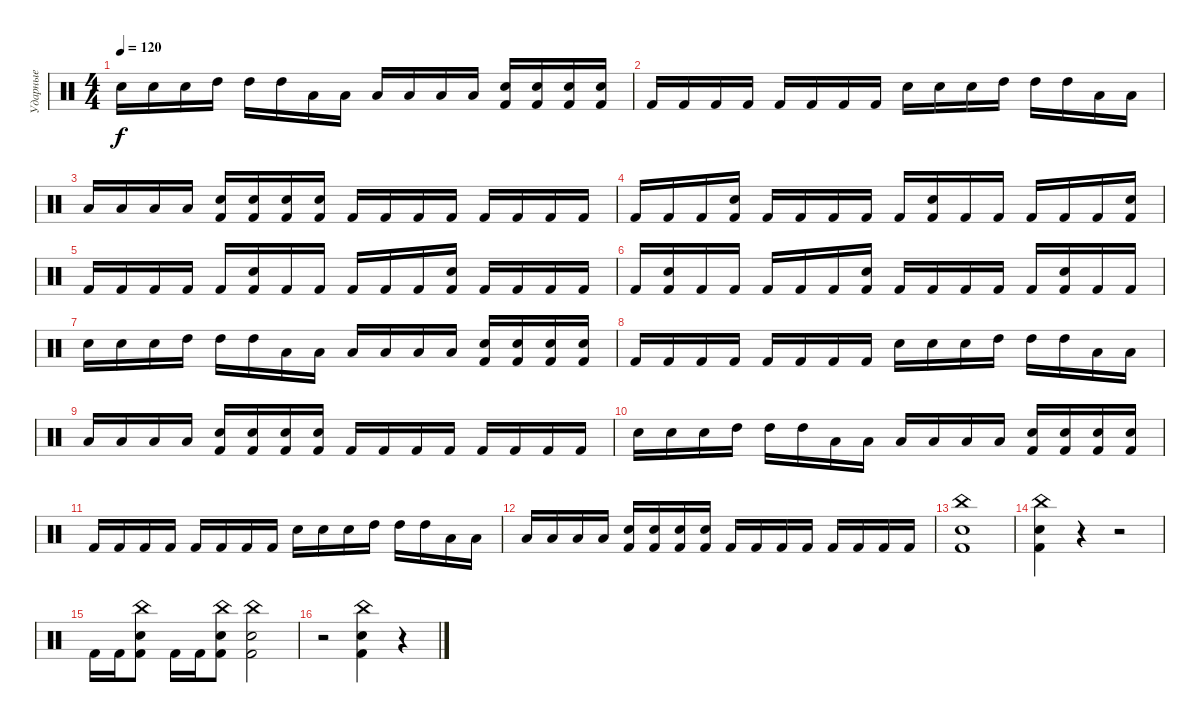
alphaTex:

\track ("Ударные" "Ударные") {instrument percussion}
\staff {score}
\articulation defaults
\ts (4 4)
\tempo 120
\clef neutral
\ks c "Snare (hit) 2".16{dy f} "Snare (hit) 2".16 "Snare (hit) 2".16 "High Tom (hit)".16 "High Tom (hit)".16 "High Tom (hit)".16 "Low Tom (hit)".16 "Low Tom (hit)".16 "Low Tom (hit)".16 "Low Floor Tom (hit)".16 "Low Floor Tom (hit)".16 "Low Floor Tom (hit)".16
("Snare (hit) 2" "Kick (hit) 2").16 ("Snare (hit) 2" "Kick (hit) 2").16 ("Snare (hit) 2" "Kick (hit) 2").16 ("Snare (hit) 2" "Kick (hit) 2").16 |
"Kick (hit) 2".16 "Kick (hit) 2".16 "Kick (hit) 2".16 "Kick (hit) 2".16 "Kick (hit) 2".16 "Kick (hit) 2".16 "Kick (hit) 2".16 "Kick (hit) 2".16 "Snare (hit) 2".16 "Snare (hit) 2".16 "Snare (hit) 2".16 "High Tom (hit)".16 "High Tom (hit)".16 "High Tom (hit)".16 "Low Tom (hit)".16 "Low Tom (hit)".16 |
"Low Tom (hit)".16 "Low Floor Tom (hit)".16 "Low Floor Tom (hit)".16 "Low Floor Tom (hit)".16 ("Snare (hit) 2" "Kick (hit) 2").16 ("Snare (hit) 2" "Kick (hit) 2").16 ("Snare (hit) 2" "Kick (hit) 2").16 ("Snare (hit) 2" "Kick (hit) 2").16 "Kick (hit) 2".16 "Kick (hit) 2".16 "Kick (hit) 2".16 "Kick (hit) 2".16 "Kick (hit) 2".16 "Kick (hit) 2".16 "Kick (hit) 2".16 "Kick (hit) 2".16 |
"Kick (hit) 2".16 "Kick (hit) 2".16 "Kick (hit) 2".16 ("Snare (hit) 2" "Kick (hit) 2").16 "Kick (hit) 2".16 "Kick (hit) 2".16 "Kick (hit) 2".16 "Kick (hit) 2".16 "Kick (hit) 2".16 ("Snare (hit) 2" "Kick (hit) 2").16 "Kick (hit) 2".16 "Kick (hit) 2".16 "Kick (hit) 2".16 "Kick (hit) 2".16 "Kick (hit) 2".16 ("Snare (hit) 2" "Kick (hit) 2").16 |
"Kick (hit) 2".16 "Kick (hit) 2".16 "Kick (hit) 2".16 "Kick (hit) 2".16 "Kick (hit) 2".16 ("Snare (hit) 2" "Kick (hit) 2").16 "Kick (hit) 2".16 "Kick (hit) 2".16 "Kick (hit) 2".16 "Kick (hit) 2".16 "Kick (hit) 2".16 ("Snare (hit) 2" "Kick (hit) 2").16 "Kick (hit) 2".16 "Kick (hit) 2".16 "Kick (hit) 2".16 "Kick (hit) 2".16 |
"Kick (hit) 2".16 ("Snare (hit) 2" "Kick (hit) 2").16 "Kick (hit) 2".16 "Kick (hit) 2".16 "Kick (hit) 2".16 "Kick (hit) 2".16 "Kick (hit) 2".16 ("Snare (hit) 2" "Kick (hit) 2").16 "Kick (hit) 2".16 "Kick (hit) 2".16 "Kick (hit) 2".16 "Kick (hit) 2".16 "Kick (hit) 2".16 ("Snare (hit) 2" "Kick (hit) 2").16 "Kick (hit) 2".16 "Kick (hit) 2".16 |
"Snare (hit) 2".16 "Snare (hit) 2".16 "Snare (hit) 2".16 "High Tom (hit)".16 "High Tom (hit)".16 "High Tom (hit)".16 "Low Tom (hit)".16 "Low Tom (hit)".16 "Low Tom (hit)".16 "Low Floor Tom (hit)".16 "Low Floor Tom (hit)".16 "Low Floor Tom (hit)".16 ("Snare (hit) 2" "Kick (hit) 2").16 ("Snare (hit) 2" "Kick (hit) 2").16 ("Snare (hit) 2" "Kick (hit) 2").16 ("Snare (hit) 2" "Kick (hit) 2").16 |
"Kick (hit) 2".16 "Kick (hit) 2".16 "Kick (hit) 2".16 "Kick (hit) 2".16 "Kick (hit) 2".16 "Kick (hit) 2".16 "Kick (hit) 2".16 "Kick (hit) 2".16 "Snare (hit) 2".16 "Snare (hit) 2".16 "Snare (hit) 2".16 "High Tom (hit)".16 "High Tom (hit)".16 "High Tom (hit)".16 "Low Tom (hit)".16 "Low Tom (hit)".16 |
"Low Tom (hit)".16 "Low Floor Tom (hit)".16 "Low Floor Tom (hit)".16 "Low Floor Tom (hit)".16 ("Snare (hit) 2" "Kick (hit) 2").16 ("Snare (hit) 2" "Kick (hit) 2").16 ("Snare (hit) 2" "Kick (hit) 2").16 ("Snare (hit) 2" "Kick (hit) 2").16 "Kick (hit) 2".16 "Kick (hit) 2".16 "Kick (hit) 2".16 "Kick (hit) 2".16 "Kick (hit) 2".16 "Kick (hit) 2".16 "Kick (hit) 2".16 "Kick (hit) 2".16 |
"Snare (hit) 2".16 "Snare (hit) 2".16 "Snare (hit) 2".16 "High Tom (hit)".16 "High Tom (hit)".16 "High Tom (hit)".16 "Low Tom (hit)".16 "Low Tom (hit)".16 "Low Tom (hit)".16 "Low Floor Tom (hit)".16 "Low Floor Tom (hit)".16 "Low Floor Tom (hit)".16 ("Snare (hit) 2" "Kick (hit) 2").16 ("Snare (hit) 2" "Kick (hit) 2").16 ("Snare (hit) 2" "Kick (hit) 2").16 ("Snare (hit) 2" "Kick (hit) 2").16 |
"Kick (hit) 2".16 "Kick (hit) 2".16 "Kick (hit) 2".16 "Kick (hit) 2".16 "Kick (hit) 2".16 "Kick (hit) 2".16 "Kick (hit) 2".16 "Kick (hit) 2".16 "Snare (hit) 2".16 "Snare (hit) 2".16 "Snare (hit) 2".16 "High Tom (hit)".16 "High Tom (hit)".16 "High Tom (hit)".16 "Low Tom (hit)".16 "Low Tom (hit)".16 |
"Low Tom (hit)".16 "Low Floor Tom (hit)".16 "Low Floor Tom (hit)".16 "Low Floor Tom (hit)".16 ("Snare (hit) 2" "Kick (hit) 2").16 ("Snare (hit) 2" "Kick (hit) 2").16 ("Snare (hit) 2" "Kick (hit) 2").16 ("Snare (hit) 2" "Kick (hit) 2").16 "Kick (hit) 2".16 "Kick (hit) 2".16 "Kick (hit) 2".16 "Kick (hit) 2".16 "Kick (hit) 2".16 "Kick (hit) 2".16 "Kick (hit) 2".16 "Kick (hit) 2".16 |
("China (hit)" "Snare (hit) 2" "Kick (hit) 2").1 |
("China (hit)" "Snare (hit) 2" "Kick (hit) 2").4 r.4 r.2 |
"Kick (hit) 2".16 "Kick (hit) 2".16 ("China (hit)" "Snare (hit) 2" "Kick (hit) 2").8 "Kick (hit) 2".16 "Kick (hit) 2".16 ("China (hit)" "Snare (hit) 2" "Kick (hit) 2").8 ("China (hit)" "Snare (hit) 2" "Kick (hit) 2").2 |
r.2 ("China (hit)" "Snare (hit) 2" "Kick (hit) 2").4 r.4
